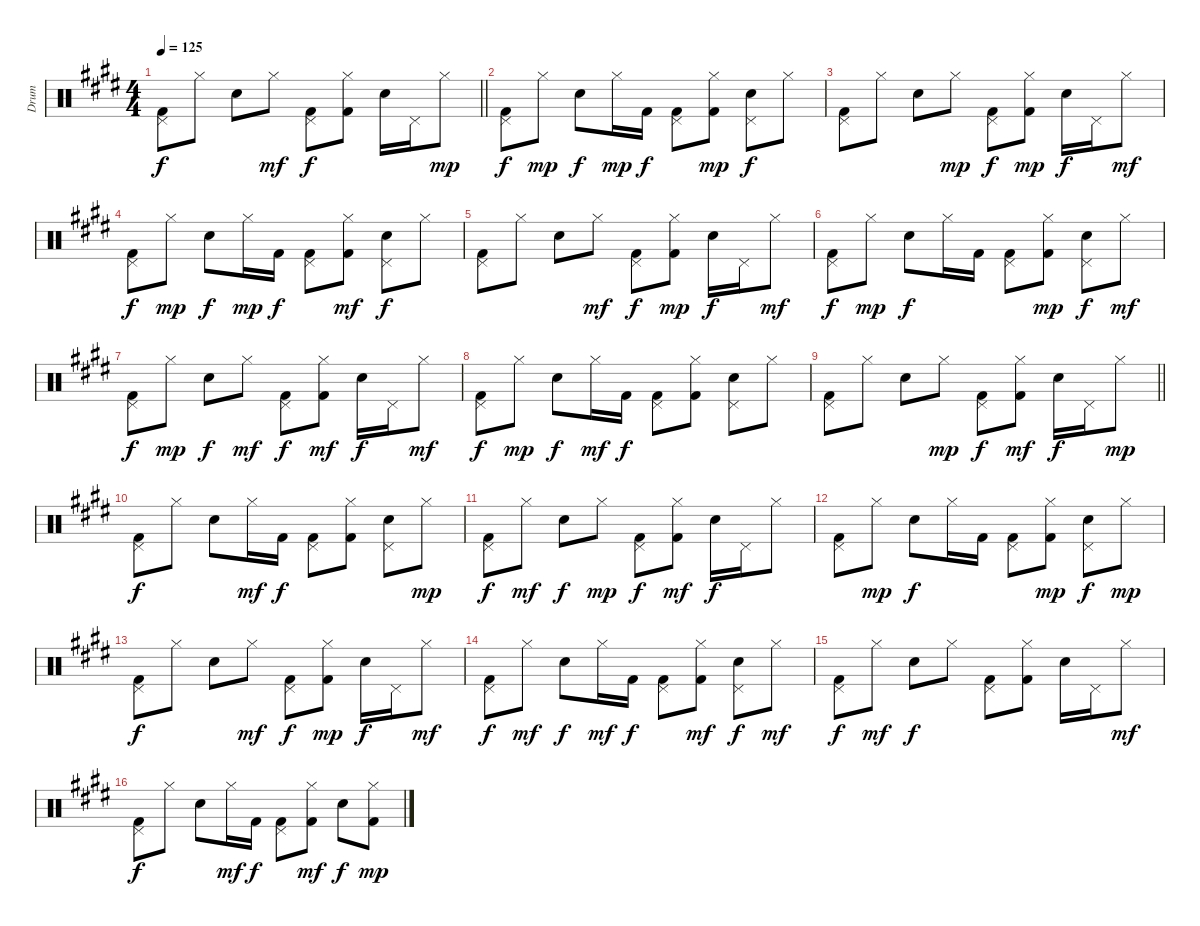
\track ("Drum" "Drum") {instrument percussion}
\staff {score}
\articulation defaults
\ts (4 4)
\tempo 125
\clef neutral
\barLineRight lightlight
\ks e
("Kick (hit) 2" "Pedal Hi-Hat (hit)").8{dy f} "Hi-Hat (closed)".8 "Snare (hit) 2".8 "Hi-Hat (closed)".8{dy mf} ("Kick (hit) 2" "Pedal Hi-Hat (hit)").8{dy f} ("Kick (hit) 2" "Hi-Hat (closed)").8 "Snare (hit) 2".16 "Pedal Hi-Hat (hit)".16 "Hi-Hat (closed)".8{dy mp} |
("Kick (hit) 2" "Pedal Hi-Hat (hit)").8{dy f} "Hi-Hat (closed)".8{dy mp} "Snare (hit) 2".8{dy f} "Hi-Hat (closed)".16{dy mp} "Kick (hit) 2".16{dy f} ("Kick (hit) 2" "Pedal Hi-Hat (hit)").8 ("Kick (hit) 2" "Hi-Hat (closed)").8{dy mp} ("Snare (hit) 2" "Pedal Hi-Hat (hit)").8{dy f} "Hi-Hat (closed)".8 |
("Kick (hit) 2" "Pedal Hi-Hat (hit)").8 "Hi-Hat (closed)".8 "Snare (hit) 2".8 "Hi-Hat (closed)".8{dy mp} ("Kick (hit) 2" "Pedal Hi-Hat (hit)").8{dy f} ("Kick (hit) 2" "Hi-Hat (closed)").8{dy mp} "Snare (hit) 2".16{dy f} "Pedal Hi-Hat (hit)".16 "Hi-Hat (closed)".8{dy mf} |
("Kick (hit) 2" "Pedal Hi-Hat (hit)").8{dy f} "Hi-Hat (closed)".8{dy mp} "Snare (hit) 2".8{dy f} "Hi-Hat (closed)".16{dy mp} "Kick (hit) 2".16{dy f} ("Kick (hit) 2" "Pedal Hi-Hat (hit)").8 ("Kick (hit) 2" "Hi-Hat (closed)").8{dy mf} ("Snare (hit) 2" "Pedal Hi-Hat (hit)").8{dy f} "Hi-Hat (closed)".8 |
("Kick (hit) 2" "Pedal Hi-Hat (hit)").8 "Hi-Hat (closed)".8 "Snare (hit) 2".8 "Hi-Hat (closed)".8{dy mf} ("Kick (hit) 2" "Pedal Hi-Hat (hit)").8{dy f} ("Kick (hit) 2" "Hi-Hat (closed)").8{dy mp} "Snare (hit) 2".16{dy f} "Pedal Hi-Hat (hit)".16 "Hi-Hat (closed)".8{dy mf} |
("Kick (hit) 2" "Pedal Hi-Hat (hit)").8{dy f} "Hi-Hat (closed)".8{dy mp} "Snare (hit) 2".8{dy f} "Hi-Hat (closed)".16 "Kick (hit) 2".16 ("Kick (hit) 2" "Pedal Hi-Hat (hit)").8 ("Kick (hit) 2" "Hi-Hat (closed)").8{dy mp} ("Snare (hit) 2" "Pedal Hi-Hat (hit)").8{dy f} "Hi-Hat (closed)".8{dy mf} |
("Kick (hit) 2" "Pedal Hi-Hat (hit)").8{dy f} "Hi-Hat (closed)".8{dy mp} "Snare (hit) 2".8{dy f} "Hi-Hat (closed)".8{dy mf} ("Kick (hit) 2" "Pedal Hi-Hat (hit)").8{dy f} ("Kick (hit) 2" "Hi-Hat (closed)").8{dy mf} "Snare (hit) 2".16{dy f} "Pedal Hi-Hat (hit)".16 "Hi-Hat (closed)".8{dy mf} |
("Kick (hit) 2" "Pedal Hi-Hat (hit)").8{dy f} "Hi-Hat (closed)".8{dy mp} "Snare (hit) 2".8{dy f} "Hi-Hat (closed)".16{dy mf} "Kick (hit) 2".16{dy f} ("Kick (hit) 2" "Pedal Hi-Hat (hit)").8 ("Kick (hit) 2" "Hi-Hat (closed)").8 ("Snare (hit) 2" "Pedal Hi-Hat (hit)").8 "Hi-Hat (closed)".8 |
\barLineRight lightlight
("Kick (hit) 2" "Pedal Hi-Hat (hit)").8 "Hi-Hat (closed)".8 "Snare (hit) 2".8 "Hi-Hat (closed)".8{dy mp} ("Kick (hit) 2" "Pedal Hi-Hat (hit)").8{dy f} ("Kick (hit) 2" "Hi-Hat (closed)").8{dy mf} "Snare (hit) 2".16{dy f} "Pedal Hi-Hat (hit)".16 "Hi-Hat (closed)".8{dy mp} |
("Kick (hit) 2" "Pedal Hi-Hat (hit)").8{dy f} "Hi-Hat (closed)".8 "Snare (hit) 2".8 "Hi-Hat (closed)".16{dy mf} "Kick (hit) 2".16{dy f} ("Kick (hit) 2" "Pedal Hi-Hat (hit)").8 ("Kick (hit) 2" "Hi-Hat (closed)").8 ("Snare (hit) 2" "Pedal Hi-Hat (hit)").8 "Hi-Hat (closed)".8{dy mp} |
("Kick (hit) 2" "Pedal Hi-Hat (hit)").8{dy f} "Hi-Hat (closed)".8{dy mf} "Snare (hit) 2".8{dy f} "Hi-Hat (closed)".8{dy mp} ("Kick (hit) 2" "Pedal Hi-Hat (hit)").8{dy f} ("Kick (hit) 2" "Hi-Hat (closed)").8{dy mf} "Snare (hit) 2".16{dy f} "Pedal Hi-Hat (hit)".16 "Hi-Hat (closed)".8 |
("Kick (hit) 2" "Pedal Hi-Hat (hit)").8 "Hi-Hat (closed)".8{dy mp} "Snare (hit) 2".8{dy f} "Hi-Hat (closed)".16 "Kick (hit) 2".16 ("Kick (hit) 2" "Pedal Hi-Hat (hit)").8 ("Kick (hit) 2" "Hi-Hat (closed)").8{dy mp} ("Snare (hit) 2" "Pedal Hi-Hat (hit)").8{dy f} "Hi-Hat (closed)".8{dy mp} |
("Kick (hit) 2" "Pedal Hi-Hat (hit)").8{dy f} "Hi-Hat (closed)".8 "Snare (hit) 2".8 "Hi-Hat (closed)".8{dy mf} ("Kick (hit) 2" "Pedal Hi-Hat (hit)").8{dy f} ("Kick (hit) 2" "Hi-Hat (closed)").8{dy mp} "Snare (hit) 2".16{dy f} "Pedal Hi-Hat (hit)".16 "Hi-Hat (closed)".8{dy mf} |
("Kick (hit) 2" "Pedal Hi-Hat (hit)").8{dy f} "Hi-Hat (closed)".8{dy mf} "Snare (hit) 2".8{dy f} "Hi-Hat (closed)".16{dy mf} "Kick (hit) 2".16{dy f} ("Kick (hit) 2" "Pedal Hi-Hat (hit)").8 ("Kick (hit) 2" "Hi-Hat (closed)").8{dy mf} ("Snare (hit) 2" "Pedal Hi-Hat (hit)").8{dy f} "Hi-Hat (closed)".8{dy mf} |
("Kick (hit) 2" "Pedal Hi-Hat (hit)").8{dy f} "Hi-Hat (closed)".8{dy mf} "Snare (hit) 2".8{dy f} "Hi-Hat (closed)".8 ("Kick (hit) 2" "Pedal Hi-Hat (hit)").8 ("Kick (hit) 2" "Hi-Hat (closed)").8 "Snare (hit) 2".16 "Pedal Hi-Hat (hit)".16 "Hi-Hat (closed)".8{dy mf} |
("Kick (hit) 2" "Pedal Hi-Hat (hit)").8{dy f} "Hi-Hat (closed)".8 "Snare (hit) 2".8 "Hi-Hat (closed)".16{dy mf} "Kick (hit) 2".16{dy f} ("Kick (hit) 2" "Pedal Hi-Hat (hit)").8 ("Kick (hit) 2" "Hi-Hat (closed)").8{dy mf} "Snare (hit) 2".8{dy f} ("Kick (hit) 2" "Hi-Hat (closed)").8{dy mp}
